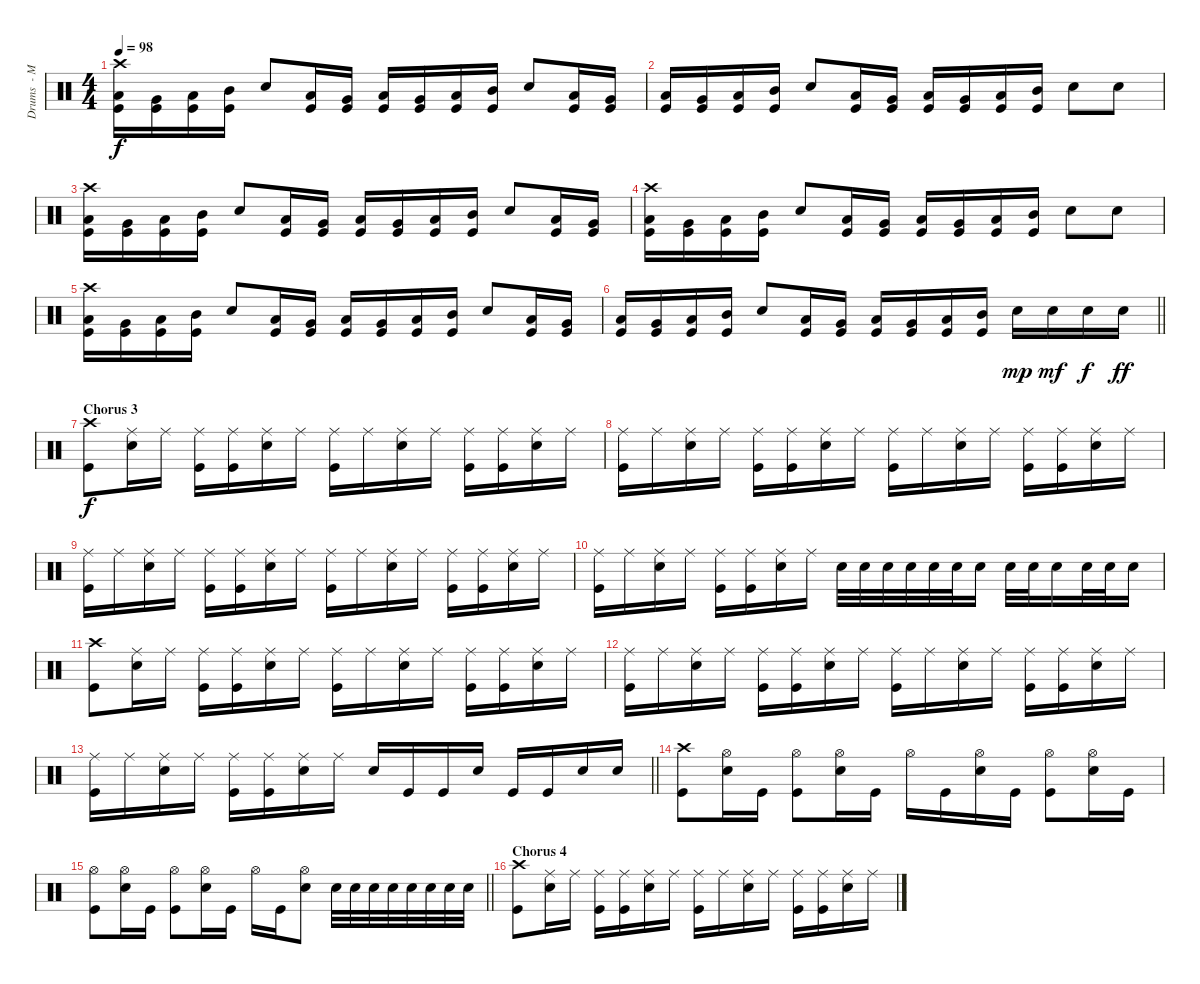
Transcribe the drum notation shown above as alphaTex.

\track ("Drums  - Mikko" "Drums  - M") {instrument percussion}
\staff {score}
\articulation defaults
\ts (4 4)
\tempo 98
\clef neutral
\ks c
("Crash high (hit)" "Low Floor Tom (hit)" "Kick (hit)").16{dy f} ("Very Low Tom (hit)" "Kick (hit)").16 ("Low Tom (hit)" "Kick (hit)").16 ("Mid Tom (hit)" "Kick (hit)").16 "Electric Snare (hit)".8 ("Low Floor Tom (hit)" "Kick (hit)").16 ("Very Low Tom (hit)" "Kick (hit)").16 ("Low Floor Tom (hit)" "Kick (hit)").16 ("Very Low Tom (hit)" "Kick (hit)").16 ("Low Tom (hit)" "Kick (hit)").16 ("Mid Tom (hit)" "Kick (hit)").16 "Electric Snare (hit)".8 ("Low Floor Tom (hit)" "Kick (hit)").16 ("Very Low Tom (hit)" "Kick (hit)").16 |
("Low Floor Tom (hit)" "Kick (hit)").16 ("Very Low Tom (hit)" "Kick (hit)").16 ("Low Tom (hit)" "Kick (hit)").16 ("Mid Tom (hit)" "Kick (hit)").16 "Electric Snare (hit)".8 ("Low Floor Tom (hit)" "Kick (hit)").16 ("Very Low Tom (hit)" "Kick (hit)").16 ("Low Floor Tom (hit)" "Kick (hit)").16 ("Very Low Tom (hit)" "Kick (hit)").16 ("Low Tom (hit)" "Kick (hit)").16 ("Mid Tom (hit)" "Kick (hit)").16 "Electric Snare (hit)".8 "Electric Snare (hit)".8 |
("Crash high (hit)" "Low Floor Tom (hit)" "Kick (hit)").16 ("Very Low Tom (hit)" "Kick (hit)").16 ("Low Tom (hit)" "Kick (hit)").16 ("Mid Tom (hit)" "Kick (hit)").16 "Electric Snare (hit)".8 ("Low Floor Tom (hit)" "Kick (hit)").16 ("Very Low Tom (hit)" "Kick (hit)").16 ("Low Floor Tom (hit)" "Kick (hit)").16 ("Very Low Tom (hit)" "Kick (hit)").16 ("Low Tom (hit)" "Kick (hit)").16 ("Mid Tom (hit)" "Kick (hit)").16 "Electric Snare (hit)".8 ("Low Floor Tom (hit)" "Kick (hit)").16 ("Very Low Tom (hit)" "Kick (hit)").16 |
("Crash high (hit)" "Low Floor Tom (hit)" "Kick (hit)").16 ("Very Low Tom (hit)" "Kick (hit)").16 ("Low Tom (hit)" "Kick (hit)").16 ("Mid Tom (hit)" "Kick (hit)").16 "Electric Snare (hit)".8 ("Low Floor Tom (hit)" "Kick (hit)").16 ("Very Low Tom (hit)" "Kick (hit)").16 ("Low Floor Tom (hit)" "Kick (hit)").16 ("Very Low Tom (hit)" "Kick (hit)").16 ("Low Tom (hit)" "Kick (hit)").16 ("Mid Tom (hit)" "Kick (hit)").16 "Electric Snare (hit)".8 "Electric Snare (hit)".8 |
("Crash high (hit)" "Low Floor Tom (hit)" "Kick (hit)").16 ("Very Low Tom (hit)" "Kick (hit)").16 ("Low Tom (hit)" "Kick (hit)").16 ("Mid Tom (hit)" "Kick (hit)").16 "Electric Snare (hit)".8 ("Low Floor Tom (hit)" "Kick (hit)").16 ("Very Low Tom (hit)" "Kick (hit)").16 ("Low Floor Tom (hit)" "Kick (hit)").16 ("Very Low Tom (hit)" "Kick (hit)").16 ("Low Tom (hit)" "Kick (hit)").16 ("Mid Tom (hit)" "Kick (hit)").16 "Electric Snare (hit)".8 ("Low Floor Tom (hit)" "Kick (hit)").16 ("Very Low Tom (hit)" "Kick (hit)").16 |
\barLineRight lightlight
("Low Floor Tom (hit)" "Kick (hit)").16 ("Very Low Tom (hit)" "Kick (hit)").16 ("Low Tom (hit)" "Kick (hit)").16 ("Mid Tom (hit)" "Kick (hit)").16 "Electric Snare (hit)".8 ("Low Floor Tom (hit)" "Kick (hit)").16 ("Very Low Tom (hit)" "Kick (hit)").16 ("Low Floor Tom (hit)" "Kick (hit)").16 ("Very Low Tom (hit)" "Kick (hit)").16 ("Low Tom (hit)" "Kick (hit)").16 ("Mid Tom (hit)" "Kick (hit)").16 "Electric Snare (hit)".16{dy mp} "Electric Snare (hit)".16{dy mf} "Electric Snare (hit)".16{dy f} "Electric Snare (hit)".16{dy ff} |
\section ("" "Chorus 3")
("Crash high (hit)" "Kick (hit)").8{dy f} ("Ride (middle)" "Electric Snare (hit)").16 "Ride (middle)".16 ("Ride (middle)" "Kick (hit)").16 ("Ride (middle)" "Kick (hit)").16 ("Ride (middle)" "Electric Snare (hit)").16 "Ride (middle)".16 ("Ride (middle)" "Kick (hit)").16 "Ride (middle)".16 ("Ride (middle)" "Electric Snare (hit)").16 "Ride (middle)".16 ("Ride (middle)" "Kick (hit)").16 ("Ride (middle)" "Kick (hit)").16 ("Ride (middle)" "Electric Snare (hit)").16 "Ride (middle)".16 |
("Ride (middle)" "Kick (hit)").16 "Ride (middle)".16 ("Ride (middle)" "Electric Snare (hit)").16 "Ride (middle)".16 ("Ride (middle)" "Kick (hit)").16 ("Ride (middle)" "Kick (hit)").16 ("Ride (middle)" "Electric Snare (hit)").16 "Ride (middle)".16 ("Ride (middle)" "Kick (hit)").16 "Ride (middle)".16 ("Ride (middle)" "Electric Snare (hit)").16 "Ride (middle)".16 ("Ride (middle)" "Kick (hit)").16 ("Ride (middle)" "Kick (hit)").16 ("Ride (middle)" "Electric Snare (hit)").16 "Ride (middle)".16 |
("Ride (middle)" "Kick (hit)").16 "Ride (middle)".16 ("Ride (middle)" "Electric Snare (hit)").16 "Ride (middle)".16 ("Ride (middle)" "Kick (hit)").16 ("Ride (middle)" "Kick (hit)").16 ("Ride (middle)" "Electric Snare (hit)").16 "Ride (middle)".16 ("Ride (middle)" "Kick (hit)").16 "Ride (middle)".16 ("Ride (middle)" "Electric Snare (hit)").16 "Ride (middle)".16 ("Ride (middle)" "Kick (hit)").16 ("Ride (middle)" "Kick (hit)").16 ("Ride (middle)" "Electric Snare (hit)").16 "Ride (middle)".16 |
("Ride (middle)" "Kick (hit)").16 "Ride (middle)".16 ("Ride (middle)" "Electric Snare (hit)").16 "Ride (middle)".16 ("Ride (middle)" "Kick (hit)").16 ("Ride (middle)" "Kick (hit)").16 ("Ride (middle)" "Electric Snare (hit)").16 "Ride (middle)".16 "Electric Snare (hit)".32 "Electric Snare (hit)".32 "Electric Snare (hit)".32 "Electric Snare (hit)".32 "Electric Snare (hit)".32 "Electric Snare (hit)".32 "Electric Snare (hit)".16 "Electric Snare (hit)".32 "Electric Snare (hit)".32 "Electric Snare (hit)".16 "Electric Snare (hit)".32 "Electric Snare (hit)".32 "Electric Snare (hit)".16 |
("Crash high (hit)" "Kick (hit)").8 ("Ride (middle)" "Electric Snare (hit)").16 "Ride (middle)".16 ("Ride (middle)" "Kick (hit)").16 ("Ride (middle)" "Kick (hit)").16 ("Ride (middle)" "Electric Snare (hit)").16 "Ride (middle)".16 ("Ride (middle)" "Kick (hit)").16 "Ride (middle)".16 ("Ride (middle)" "Electric Snare (hit)").16 "Ride (middle)".16 ("Ride (middle)" "Kick (hit)").16 ("Ride (middle)" "Kick (hit)").16 ("Ride (middle)" "Electric Snare (hit)").16 "Ride (middle)".16 |
("Ride (middle)" "Kick (hit)").16 "Ride (middle)".16 ("Ride (middle)" "Electric Snare (hit)").16 "Ride (middle)".16 ("Ride (middle)" "Kick (hit)").16 ("Ride (middle)" "Kick (hit)").16 ("Ride (middle)" "Electric Snare (hit)").16 "Ride (middle)".16 ("Ride (middle)" "Kick (hit)").16 "Ride (middle)".16 ("Ride (middle)" "Electric Snare (hit)").16 "Ride (middle)".16 ("Ride (middle)" "Kick (hit)").16 ("Ride (middle)" "Kick (hit)").16 ("Ride (middle)" "Electric Snare (hit)").16 "Ride (middle)".16 |
\barLineRight lightlight
("Ride (middle)" "Kick (hit)").16 "Ride (middle)".16 ("Ride (middle)" "Electric Snare (hit)").16 "Ride (middle)".16 ("Ride (middle)" "Kick (hit)").16 ("Ride (middle)" "Kick (hit)").16 ("Ride (middle)" "Electric Snare (hit)").16 "Ride (middle)".16 "Electric Snare (hit)".16 "Kick (hit)".16 "Kick (hit)".16 "Electric Snare (hit)".16 "Kick (hit)".16 "Kick (hit)".16 "Electric Snare (hit)".16 "Electric Snare (hit)".16 |
\section ("" "")
("Crash high (hit)" "Kick (hit)").8 ("Hi-Hat (open)" "Electric Snare (hit)").16 "Kick (hit)".16 ("Hi-Hat (open)" "Kick (hit)").8 ("Hi-Hat (open)" "Electric Snare (hit)").16 "Kick (hit)".16 "Hi-Hat (open)".16 "Kick (hit)".16 ("Hi-Hat (open)" "Electric Snare (hit)").16 "Kick (hit)".16 ("Hi-Hat (open)" "Kick (hit)").8 ("Hi-Hat (open)" "Electric Snare (hit)").16 "Kick (hit)".16 |
\barLineRight lightlight
("Hi-Hat (open)" "Kick (hit)").8 ("Hi-Hat (open)" "Electric Snare (hit)").16 "Kick (hit)".16 ("Hi-Hat (open)" "Kick (hit)").8 ("Hi-Hat (open)" "Electric Snare (hit)").16 "Kick (hit)".16 "Hi-Hat (open)".16 "Kick (hit)".16 ("Hi-Hat (open)" "Electric Snare (hit)").8 "Electric Snare (hit)".32 "Electric Snare (hit)".32 "Electric Snare (hit)".32 "Electric Snare (hit)".32 "Electric Snare (hit)".32 "Electric Snare (hit)".32 "Electric Snare (hit)".32 "Electric Snare (hit)".32 |
\section ("" "Chorus 4")
("Crash high (hit)" "Kick (hit)").8 ("Ride (middle)" "Electric Snare (hit)").16 "Ride (middle)".16 ("Ride (middle)" "Kick (hit)").16 ("Ride (middle)" "Kick (hit)").16 ("Ride (middle)" "Electric Snare (hit)").16 "Ride (middle)".16 ("Ride (middle)" "Kick (hit)").16 "Ride (middle)".16 ("Ride (middle)" "Electric Snare (hit)").16 "Ride (middle)".16 ("Ride (middle)" "Kick (hit)").16 ("Ride (middle)" "Kick (hit)").16 ("Ride (middle)" "Electric Snare (hit)").16 "Ride (middle)".16
